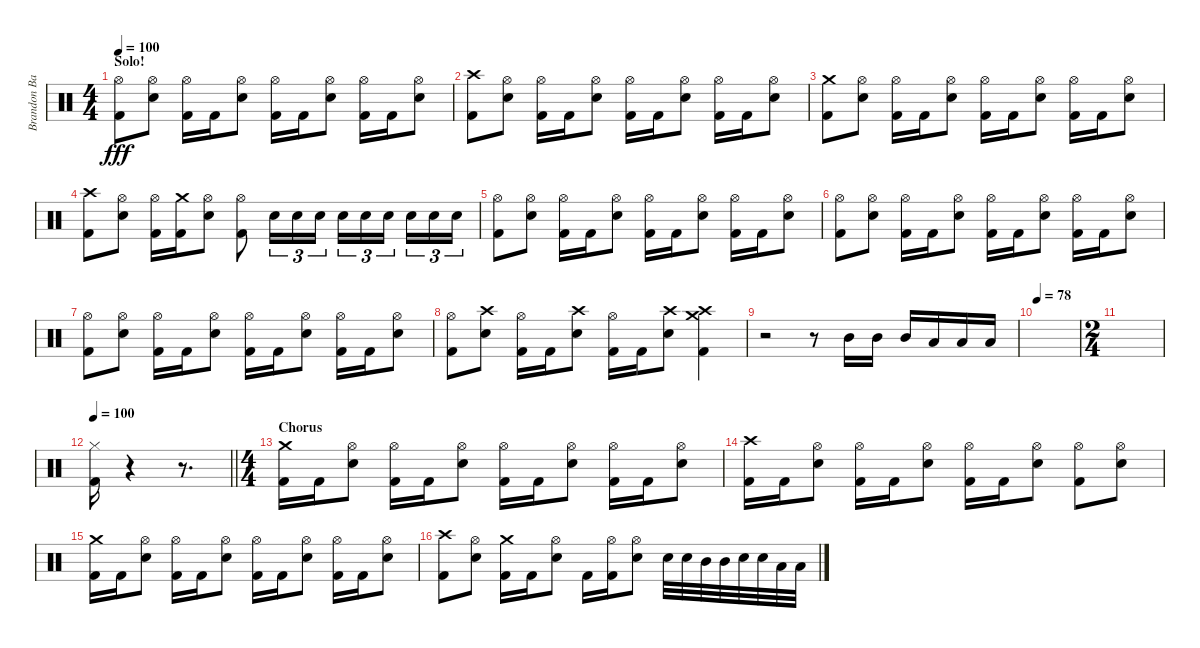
\track ("Brandon Barnes" "Brandon Ba") {instrument percussion}
\staff {score}
\articulation defaults
\ts (4 4)
\section ("" "Solo!")
\tempo 100
\clef neutral
\ks c
("Hi-Hat (open)" "Kick (hit) 2").8{dy fff} ("Hi-Hat (open)" "Snare (hit) 2").8 ("Hi-Hat (open)" "Kick (hit) 2").16 "Kick (hit) 2".16 ("Hi-Hat (open)" "Snare (hit) 2").8 ("Hi-Hat (open)" "Kick (hit) 2").16 "Kick (hit) 2".16 ("Hi-Hat (open)" "Snare (hit) 2").8 ("Hi-Hat (open)" "Kick (hit) 2").16 "Kick (hit) 2".16 ("Hi-Hat (open)" "Snare (hit) 2").8 |
("Crash high (hit)" "Kick (hit) 2").8 ("Hi-Hat (open)" "Snare (hit) 2").8 ("Hi-Hat (open)" "Kick (hit) 2").16 "Kick (hit) 2".16 ("Hi-Hat (open)" "Snare (hit) 2").8 ("Hi-Hat (open)" "Kick (hit) 2").16 "Kick (hit) 2".16 ("Hi-Hat (open)" "Snare (hit) 2").8 ("Hi-Hat (open)" "Kick (hit) 2").16 "Kick (hit) 2".16 ("Hi-Hat (open)" "Snare (hit) 2").8 |
("Crash medium (hit)" "Kick (hit) 2").8 ("Hi-Hat (open)" "Snare (hit) 2").8 ("Hi-Hat (open)" "Kick (hit) 2").16 "Kick (hit) 2".16 ("Hi-Hat (open)" "Snare (hit) 2").8 ("Hi-Hat (open)" "Kick (hit) 2").16 "Kick (hit) 2".16 ("Hi-Hat (open)" "Snare (hit) 2").8 ("Hi-Hat (open)" "Kick (hit) 2").16 "Kick (hit) 2".16 ("Hi-Hat (open)" "Snare (hit) 2").8 |
("Crash high (hit)" "Kick (hit) 2").8 ("Hi-Hat (open)" "Snare (hit) 2").8 ("Hi-Hat (open)" "Kick (hit) 2").16 ("Crash medium (hit)" "Kick (hit) 2").16 ("Hi-Hat (open)" "Snare (hit) 2").8 ("Hi-Hat (open)" "Kick (hit) 2").8 "Snare (hit) 2".16{tu (3 2)} "Snare (hit) 2".16{tu (3 2)} "Snare (hit) 2".16{tu (3 2)} "Snare (hit) 2".16{tu (3 2)} "Snare (hit) 2".16{tu (3 2)} "Snare (hit) 2".16{tu (3 2) beam splitsecondary} "Snare (hit) 2".16{tu (3 2)} "Snare (hit) 2".16{tu (3 2)} "Snare (hit) 2".16{tu (3 2)} |
("Hi-Hat (open)" "Kick (hit) 2").8 ("Hi-Hat (open)" "Snare (hit) 2").8 ("Hi-Hat (open)" "Kick (hit) 2").16 "Kick (hit) 2".16 ("Hi-Hat (open)" "Snare (hit) 2").8 ("Hi-Hat (open)" "Kick (hit) 2").16 "Kick (hit) 2".16 ("Hi-Hat (open)" "Snare (hit) 2").8 ("Hi-Hat (open)" "Kick (hit) 2").16 "Kick (hit) 2".16 ("Hi-Hat (open)" "Snare (hit) 2").8 |
("Hi-Hat (open)" "Kick (hit) 2").8 ("Hi-Hat (open)" "Snare (hit) 2").8 ("Hi-Hat (open)" "Kick (hit) 2").16 "Kick (hit) 2".16 ("Hi-Hat (open)" "Snare (hit) 2").8 ("Hi-Hat (open)" "Kick (hit) 2").16 "Kick (hit) 2".16 ("Hi-Hat (open)" "Snare (hit) 2").8 ("Hi-Hat (open)" "Kick (hit) 2").16 "Kick (hit) 2".16 ("Hi-Hat (open)" "Snare (hit) 2").8 |
("Hi-Hat (open)" "Kick (hit) 2").8 ("Hi-Hat (open)" "Snare (hit) 2").8 ("Hi-Hat (open)" "Kick (hit) 2").16 "Kick (hit) 2".16 ("Hi-Hat (open)" "Snare (hit) 2").8 ("Hi-Hat (open)" "Kick (hit) 2").16 "Kick (hit) 2".16 ("Hi-Hat (open)" "Snare (hit) 2").8 ("Hi-Hat (open)" "Kick (hit) 2").16 "Kick (hit) 2".16 ("Hi-Hat (open)" "Snare (hit) 2").8 |
("Hi-Hat (open)" "Kick (hit) 2").8 ("Crash high (hit)" "Snare (hit) 2").8 ("Hi-Hat (open)" "Kick (hit) 2").16 "Kick (hit) 2".16 ("Crash high (hit)" "Snare (hit) 2").8 ("Hi-Hat (open)" "Kick (hit) 2").16 "Kick (hit) 2".16 ("Crash high (hit)" "Snare (hit) 2").8 ("Crash high (hit)" "Crash medium (hit)" "Kick (hit) 2").4 |
r.2 r.8 "Mid Tom (hit)".16 "Mid Tom (hit)".16 "Mid Tom (hit)".16 "Low Tom (hit)".16 "Low Tom (hit)".16 "Low Tom (hit)".16 |
\tempo 78
|
\ts (2 4)
|
\tempo 100
\barLineRight lightlight
("Hi-Hat (closed)" "Kick (hit) 2").16 r.4 r.8{d} |
\ts (4 4)
\section ("" "Chorus")
("Crash medium (hit)" "Kick (hit) 2").16 "Kick (hit) 2".16 ("Hi-Hat (open)" "Snare (hit) 2").8 ("Hi-Hat (open)" "Kick (hit) 2").16 "Kick (hit) 2".16 ("Hi-Hat (open)" "Snare (hit) 2").8 ("Hi-Hat (open)" "Kick (hit) 2").16 "Kick (hit) 2".16 ("Hi-Hat (open)" "Snare (hit) 2").8 ("Hi-Hat (open)" "Kick (hit) 2").16 "Kick (hit) 2".16 ("Hi-Hat (open)" "Snare (hit) 2").8 |
("Crash high (hit)" "Kick (hit) 2").16 "Kick (hit) 2".16 ("Hi-Hat (open)" "Snare (hit) 2").8 ("Hi-Hat (open)" "Kick (hit) 2").16 "Kick (hit) 2".16 ("Hi-Hat (open)" "Snare (hit) 2").8 ("Hi-Hat (open)" "Kick (hit) 2").16 "Kick (hit) 2".16 ("Hi-Hat (open)" "Snare (hit) 2").8 ("Hi-Hat (open)" "Kick (hit) 2").8 ("Hi-Hat (open)" "Snare (hit) 2").8 |
("Crash medium (hit)" "Kick (hit) 2").16 "Kick (hit) 2".16 ("Hi-Hat (open)" "Snare (hit) 2").8 ("Hi-Hat (open)" "Kick (hit) 2").16 "Kick (hit) 2".16 ("Hi-Hat (open)" "Snare (hit) 2").8 ("Hi-Hat (open)" "Kick (hit) 2").16 "Kick (hit) 2".16 ("Hi-Hat (open)" "Snare (hit) 2").8 ("Hi-Hat (open)" "Kick (hit) 2").16 "Kick (hit) 2".16 ("Hi-Hat (open)" "Snare (hit) 2").8 |
("Crash high (hit)" "Kick (hit) 2").8 ("Hi-Hat (open)" "Snare (hit) 2").8 ("Crash medium (hit)" "Kick (hit) 2").16 "Kick (hit) 2".16 ("Hi-Hat (open)" "Snare (hit) 2").8 "Kick (hit) 2".16 ("Hi-Hat (open)" "Kick (hit) 2").16 ("Hi-Hat (open)" "Snare (hit) 2").8 "Snare (hit) 2".32 "Snare (hit) 2".32 "Mid Tom (hit)".32 "Mid Tom (hit)".32 "Snare (hit) 2".32 "Snare (hit) 2".32 "Low Tom (hit)".32 "Low Tom (hit)".32
